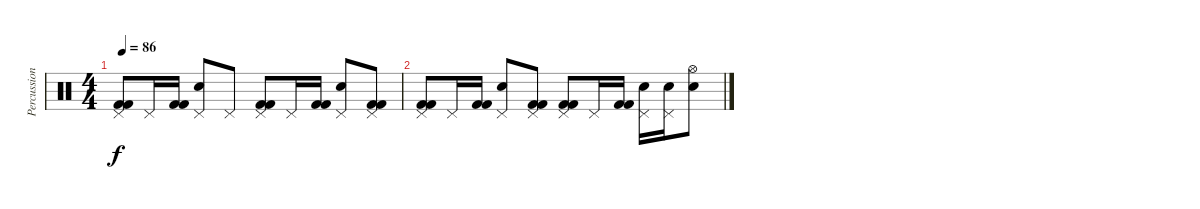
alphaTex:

\track ("Percussion" "Percussion") {instrument percussion}
\staff {score}
\articulation defaults
\ts (4 4)
\tempo 86
\clef neutral
\ks c
("Pedal Hi-Hat (hit)" "Kick (hit) 2" "Kick (hit) 2").8{dy f} "Pedal Hi-Hat (hit)".16 ("Kick (hit) 2" "Kick (hit) 2").16 ("Pedal Hi-Hat (hit)" "Snare (hit) 2").8 "Pedal Hi-Hat (hit)".8 ("Pedal Hi-Hat (hit)" "Kick (hit) 2" "Kick (hit) 2").8 "Pedal Hi-Hat (hit)".16 ("Kick (hit) 2" "Kick (hit) 2").16 ("Pedal Hi-Hat (hit)" "Snare (hit) 2").8 ("Pedal Hi-Hat (hit)" "Kick (hit) 2" "Kick (hit) 2").8 |
("Pedal Hi-Hat (hit)" "Kick (hit) 2" "Kick (hit) 2").8 "Pedal Hi-Hat (hit)".16 ("Kick (hit) 2" "Kick (hit) 2").16 ("Pedal Hi-Hat (hit)" "Snare (hit) 2").8 ("Pedal Hi-Hat (hit)" "Kick (hit) 2" "Kick (hit) 2").8 ("Pedal Hi-Hat (hit)" "Kick (hit) 2" "Kick (hit) 2").8 "Pedal Hi-Hat (hit)".16 ("Kick (hit) 2" "Kick (hit) 2").16 ("Pedal Hi-Hat (hit)" "Snare (hit) 2").16 ("Pedal Hi-Hat (hit)" "Snare (hit) 2").16 ("Hi-Hat (open)" "Snare (hit) 2").8
